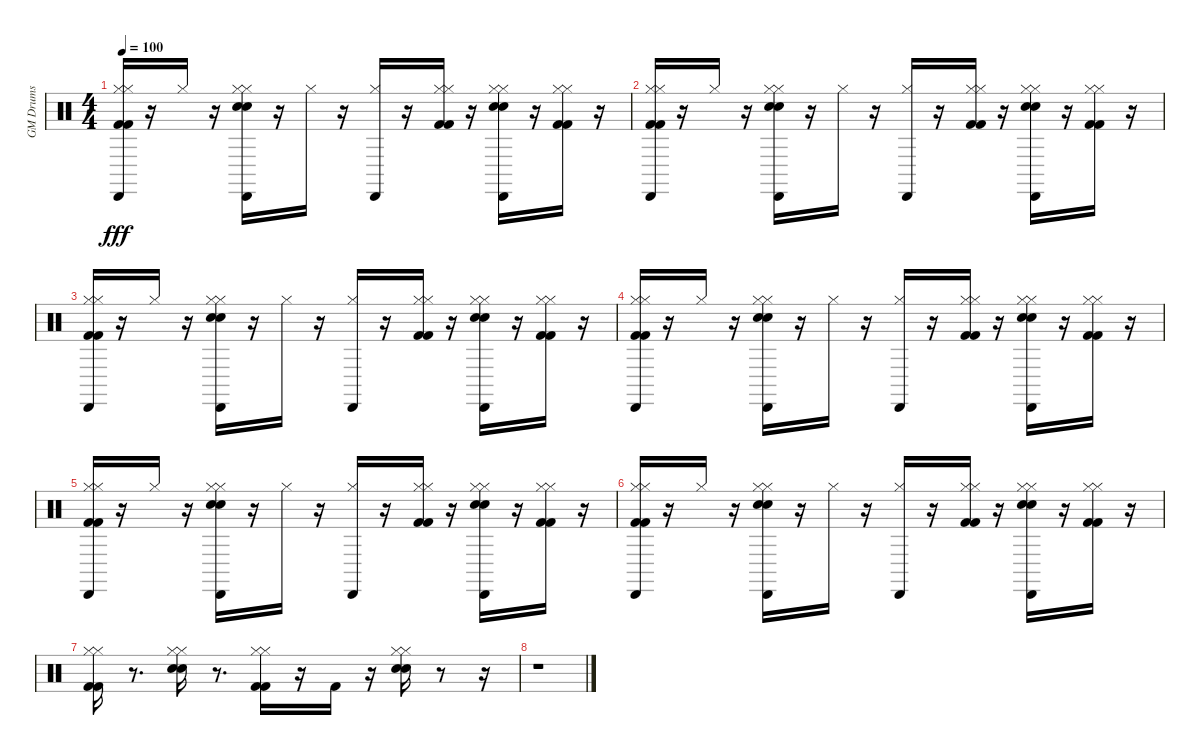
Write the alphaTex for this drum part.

\track ("GM Drums" "GM Drums") {instrument percussion}
\staff {score}
\articulation defaults
\ts (4 4)
\tempo 100
\clef neutral
\ks c
("Kick (hit) 2" "Kick (hit) 2" "Hi-Hat (closed)" "Hi-Hat (closed)" "Cabasa (hit)").16{dy fff} r.16 "Hi-Hat (closed)".16 r.16 ("Snare (hit) 2" "Snare (hit) 2" "Hi-Hat (closed)" "Hi-Hat (closed)" "Cabasa (hit)").16 r.16 "Hi-Hat (closed)".16 r.16 ("Hi-Hat (closed)" "Cabasa (hit)").16 r.16 ("Kick (hit) 2" "Kick (hit) 2" "Hi-Hat (closed)" "Hi-Hat (closed)").16 r.16 ("Snare (hit) 2" "Snare (hit) 2" "Hi-Hat (closed)" "Hi-Hat (closed)" "Cabasa (hit)").16 r.16 ("Kick (hit) 2" "Kick (hit) 2" "Hi-Hat (closed)" "Hi-Hat (closed)").16 r.16 |
("Kick (hit) 2" "Kick (hit) 2" "Hi-Hat (closed)" "Hi-Hat (closed)" "Cabasa (hit)").16 r.16 "Hi-Hat (closed)".16 r.16 ("Snare (hit) 2" "Snare (hit) 2" "Hi-Hat (closed)" "Hi-Hat (closed)" "Cabasa (hit)").16 r.16 "Hi-Hat (closed)".16 r.16 ("Hi-Hat (closed)" "Cabasa (hit)").16 r.16 ("Kick (hit) 2" "Kick (hit) 2" "Hi-Hat (closed)" "Hi-Hat (closed)").16 r.16 ("Snare (hit) 2" "Snare (hit) 2" "Hi-Hat (closed)" "Hi-Hat (closed)" "Cabasa (hit)").16 r.16 ("Kick (hit) 2" "Kick (hit) 2" "Hi-Hat (closed)" "Hi-Hat (closed)").16 r.16 |
("Kick (hit) 2" "Kick (hit) 2" "Hi-Hat (closed)" "Hi-Hat (closed)" "Cabasa (hit)").16 r.16 "Hi-Hat (closed)".16 r.16 ("Snare (hit) 2" "Snare (hit) 2" "Hi-Hat (closed)" "Hi-Hat (closed)" "Cabasa (hit)").16 r.16 "Hi-Hat (closed)".16 r.16 ("Hi-Hat (closed)" "Cabasa (hit)").16 r.16 ("Kick (hit) 2" "Kick (hit) 2" "Hi-Hat (closed)" "Hi-Hat (closed)").16 r.16 ("Snare (hit) 2" "Snare (hit) 2" "Hi-Hat (closed)" "Hi-Hat (closed)" "Cabasa (hit)").16 r.16 ("Kick (hit) 2" "Kick (hit) 2" "Hi-Hat (closed)" "Hi-Hat (closed)").16 r.16 |
("Kick (hit) 2" "Kick (hit) 2" "Hi-Hat (closed)" "Hi-Hat (closed)" "Cabasa (hit)").16 r.16 "Hi-Hat (closed)".16 r.16 ("Snare (hit) 2" "Snare (hit) 2" "Hi-Hat (closed)" "Hi-Hat (closed)" "Cabasa (hit)").16 r.16 "Hi-Hat (closed)".16 r.16 ("Hi-Hat (closed)" "Cabasa (hit)").16 r.16 ("Kick (hit) 2" "Kick (hit) 2" "Hi-Hat (closed)" "Hi-Hat (closed)").16 r.16 ("Snare (hit) 2" "Snare (hit) 2" "Hi-Hat (closed)" "Hi-Hat (closed)" "Cabasa (hit)").16 r.16 ("Kick (hit) 2" "Kick (hit) 2" "Hi-Hat (closed)" "Hi-Hat (closed)").16 r.16 |
("Kick (hit) 2" "Kick (hit) 2" "Hi-Hat (closed)" "Hi-Hat (closed)" "Cabasa (hit)").16 r.16 "Hi-Hat (closed)".16 r.16 ("Snare (hit) 2" "Snare (hit) 2" "Hi-Hat (closed)" "Hi-Hat (closed)" "Cabasa (hit)").16 r.16 "Hi-Hat (closed)".16 r.16 ("Hi-Hat (closed)" "Cabasa (hit)").16 r.16 ("Kick (hit) 2" "Kick (hit) 2" "Hi-Hat (closed)" "Hi-Hat (closed)").16 r.16 ("Snare (hit) 2" "Snare (hit) 2" "Hi-Hat (closed)" "Hi-Hat (closed)" "Cabasa (hit)").16 r.16 ("Kick (hit) 2" "Kick (hit) 2" "Hi-Hat (closed)" "Hi-Hat (closed)").16 r.16 |
("Kick (hit) 2" "Kick (hit) 2" "Hi-Hat (closed)" "Hi-Hat (closed)" "Cabasa (hit)").16 r.16 "Hi-Hat (closed)".16 r.16 ("Snare (hit) 2" "Snare (hit) 2" "Hi-Hat (closed)" "Hi-Hat (closed)" "Cabasa (hit)").16 r.16 "Hi-Hat (closed)".16 r.16 ("Hi-Hat (closed)" "Cabasa (hit)").16 r.16 ("Kick (hit) 2" "Kick (hit) 2" "Hi-Hat (closed)" "Hi-Hat (closed)").16 r.16 ("Snare (hit) 2" "Snare (hit) 2" "Hi-Hat (closed)" "Hi-Hat (closed)" "Cabasa (hit)").16 r.16 ("Kick (hit) 2" "Kick (hit) 2" "Hi-Hat (closed)" "Hi-Hat (closed)").16 r.16 |
("Kick (hit) 2" "Kick (hit) 2" "Hi-Hat (closed)" "Hi-Hat (closed)").16 r.8{d} ("Snare (hit) 2" "Snare (hit) 2" "Hi-Hat (closed)" "Hi-Hat (closed)").16 r.8{d} ("Kick (hit) 2" "Kick (hit) 2" "Hi-Hat (closed)" "Hi-Hat (closed)").16 r.16 "Kick (hit) 2".16 r.16 ("Snare (hit) 2" "Snare (hit) 2" "Hi-Hat (closed)" "Hi-Hat (closed)").16 r.8 r.16 |
r.1
